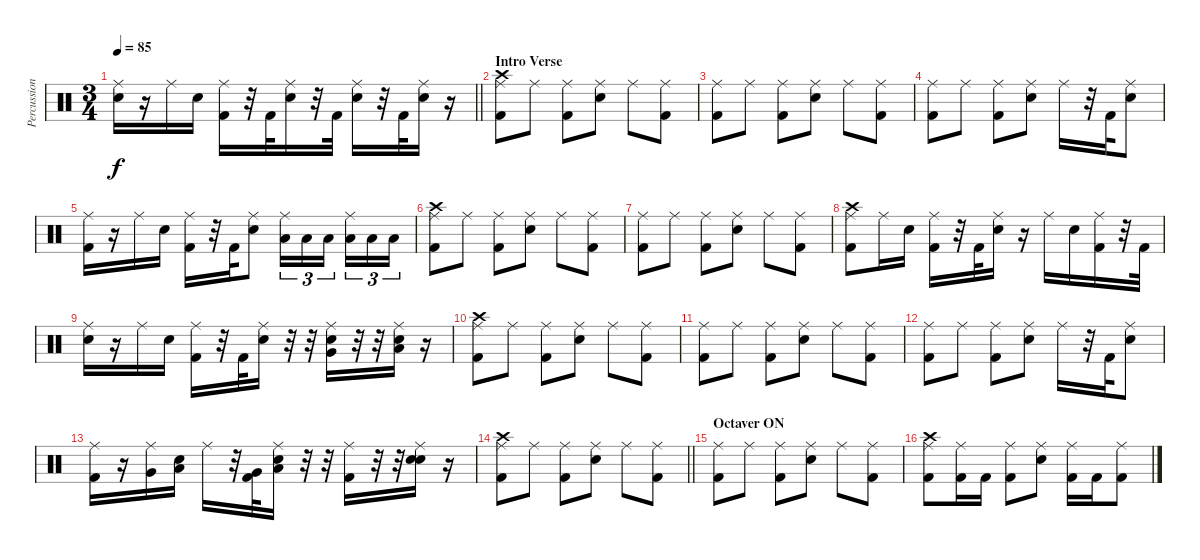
\track ("Percussion" "Percussion") {instrument percussion}
\staff {score}
\articulation defaults
\ts (3 4)
\tempo 85
\clef neutral
\barLineRight lightlight
\ks c
("Ride (middle)" "Electric Snare (hit)").16{dy f} r.16 "Ride (middle)".16 "Electric Snare (hit)".16 ("Ride (middle)" "Kick (hit) 2").16 r.32 "Kick (hit) 2".32 ("Ride (middle)" "Electric Snare (hit)").16 r.32 "Kick (hit) 2".32 ("Ride (middle)" "Electric Snare (hit)").16 r.32 "Kick (hit) 2".32 ("Ride (middle)" "Electric Snare (hit)").16 r.16 |
\section ("" "Intro Verse")
("Ride (middle)" "Crash high (hit)" "Kick (hit) 2").8 "Ride (middle)".8 ("Ride (middle)" "Kick (hit) 2").8 ("Ride (middle)" "Electric Snare (hit)").8 "Ride (middle)".8 ("Ride (middle)" "Kick (hit) 2").8 |
("Ride (middle)" "Kick (hit) 2").8 "Ride (middle)".8 ("Ride (middle)" "Kick (hit) 2").8 ("Ride (middle)" "Electric Snare (hit)").8 "Ride (middle)".8 ("Ride (middle)" "Kick (hit) 2").8 |
("Ride (middle)" "Kick (hit) 2").8 "Ride (middle)".8 ("Ride (middle)" "Kick (hit) 2").8 ("Ride (middle)" "Electric Snare (hit)").8 "Ride (middle)".16 r.32 "Kick (hit) 2".32 ("Ride (middle)" "Electric Snare (hit)").8 |
("Ride (middle)" "Kick (hit) 2").16 r.16 "Ride (middle)".16 "Electric Snare (hit)".16 ("Ride (middle)" "Kick (hit) 2").16 r.32 "Kick (hit) 2".32 ("Ride (middle)" "Electric Snare (hit)").8 ("Ride (middle)" "Low Tom (hit)").16{tu (3 2)} "Low Tom (hit)".16{tu (3 2)} "Low Tom (hit)".16{tu (3 2) beam splitsecondary} ("Ride (middle)" "Low Tom (hit)").16{tu (3 2)} "Low Tom (hit)".16{tu (3 2)} "Low Tom (hit)".16{tu (3 2)} |
("Ride (middle)" "Crash high (hit)" "Kick (hit) 2").8 "Ride (middle)".8 ("Ride (middle)" "Kick (hit) 2").8 ("Ride (middle)" "Electric Snare (hit)").8 "Ride (middle)".8 ("Ride (middle)" "Kick (hit) 2").8 |
("Ride (middle)" "Kick (hit) 2").8 "Ride (middle)".8 ("Ride (middle)" "Kick (hit) 2").8 ("Ride (middle)" "Electric Snare (hit)").8 "Ride (middle)".8 ("Ride (middle)" "Kick (hit) 2").8 |
("Ride (middle)" "Crash high (hit)" "Kick (hit) 2").8 "Ride (middle)".16 "Electric Snare (hit)".16 ("Ride (middle)" "Kick (hit) 2").16 r.32 "Kick (hit) 2".32 ("Ride (middle)" "Electric Snare (hit)").16 r.16 "Ride (middle)".16 "Electric Snare (hit)".16 ("Ride (middle)" "Kick (hit) 2").16 r.32 "Kick (hit) 2".32 |
("Ride (middle)" "Electric Snare (hit)").16 r.16 "Ride (middle)".16 "Electric Snare (hit)".16 ("Ride (middle)" "Kick (hit) 2").16 r.32 "Kick (hit) 2".32 ("Ride (middle)" "Electric Snare (hit)").16 r.32 r.32 ("Ride (middle)" "Very Low Tom (hit)" "Electric Snare (hit)").16 r.32 r.32 ("Ride (middle)" "Low Floor Tom (hit)" "Electric Snare (hit)").16 r.16 |
("Ride (middle)" "Crash high (hit)" "Kick (hit) 2").8 "Ride (middle)".8 ("Ride (middle)" "Kick (hit) 2").8 ("Ride (middle)" "Electric Snare (hit)").8 "Ride (middle)".8 ("Ride (middle)" "Kick (hit) 2").8 |
("Ride (middle)" "Kick (hit) 2").8 "Ride (middle)".8 ("Ride (middle)" "Kick (hit) 2").8 ("Ride (middle)" "Electric Snare (hit)").8 "Ride (middle)".8 ("Ride (middle)" "Kick (hit) 2").8 |
("Ride (middle)" "Kick (hit) 2").8 "Ride (middle)".8 ("Ride (middle)" "Kick (hit) 2").8 ("Ride (middle)" "Electric Snare (hit)").8 "Ride (middle)".16 r.32 "Kick (hit) 2".32 ("Ride (middle)" "Electric Snare (hit)").8 |
("Ride (middle)" "Kick (hit) 2").16 r.16 ("Ride (middle)" "Very Low Tom (hit)").16 ("Electric Snare (hit)" "Low Tom (hit)").16 "Ride (middle)".16 r.32 ("Very Low Tom (hit)" "Kick (hit) 2").32 ("Ride (middle)" "Electric Snare (hit)" "Low Tom (hit)").16 r.32 r.32 ("Ride (middle)" "Kick (hit) 2").16 r.32 r.32 ("Ride (middle)" "Electric Snare (hit)" "Electric Snare (hit)").16 r.16 |
\barLineRight lightlight
("Ride (middle)" "Crash high (hit)" "Kick (hit) 2").8 "Ride (middle)".8 ("Ride (middle)" "Kick (hit) 2").8 ("Ride (middle)" "Electric Snare (hit)").8 "Ride (middle)".8 ("Ride (middle)" "Kick (hit) 2").8 |
\section ("" "Octaver ON")
("Ride (middle)" "Kick (hit) 2").8 "Ride (middle)".8 ("Ride (middle)" "Kick (hit) 2").8 ("Ride (middle)" "Electric Snare (hit)").8 "Ride (middle)".8 ("Ride (middle)" "Kick (hit) 2").8 |
("Ride (middle)" "Crash high (hit)" "Kick (hit) 2").8 ("Ride (middle)" "Kick (hit) 2").16 "Kick (hit) 2".16 ("Ride (middle)" "Kick (hit) 2").8 ("Ride (middle)" "Electric Snare (hit)").8 ("Ride (middle)" "Kick (hit) 2").16 "Kick (hit) 2".16 ("Ride (middle)" "Kick (hit) 2").8
